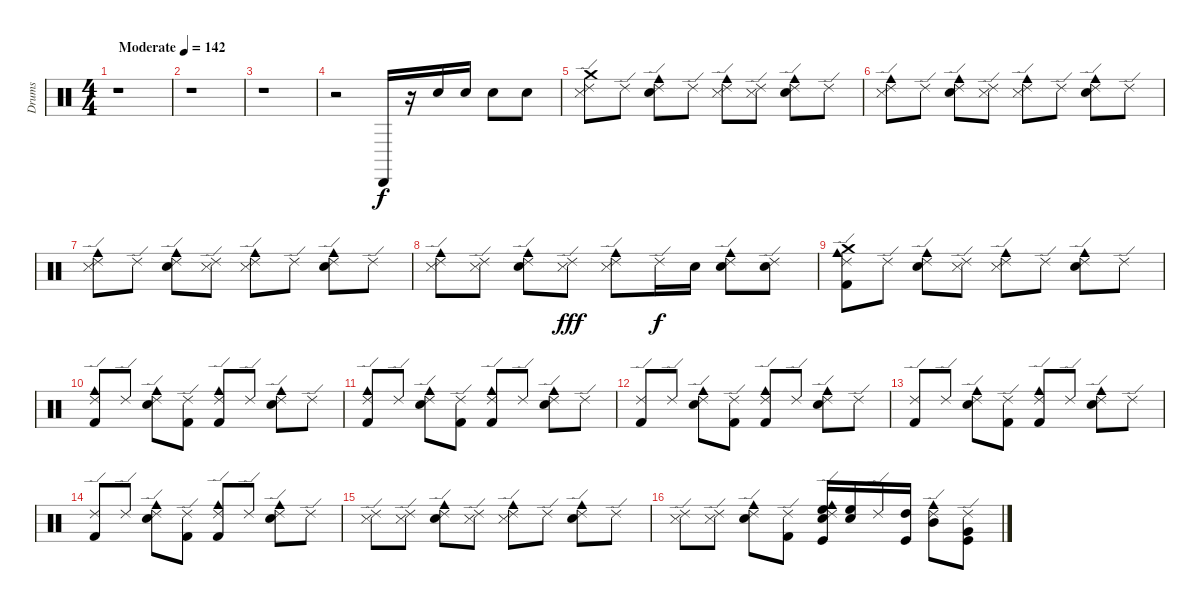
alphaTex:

\track ("Drums" "Drums") {instrument percussion}
\staff {score}
\articulation defaults
\ts (4 4)
\tempo (142 "Moderate")
\clef neutral
\ks c
r.1{dy f} |
r.1 |
r.1 |
r.2 "Cabasa (hit)".16{volume 16} r.16 "Snare (hit) 2".16 "Snare (hit) 2".16 "Snare (hit) 2".8 "Snare (hit) 2".8 |
("Metronome (hit)" "Crash medium (hit)" "Ride (edge) 2").8 "Ride (edge) 2".8 ("Cowbell medium (hit)" "Ride (edge) 2" "Snare (hit) 2").8 "Ride (edge) 2".8 ("Cowbell medium (hit)" "Ride (edge) 2" "Metronome (hit)").8 ("Metronome (hit)" "Ride (edge) 2").8 ("Cowbell medium (hit)" "Ride (edge) 2" "Snare (hit) 2").8 "Ride (edge) 2".8 |
("Metronome (hit)" "Cowbell medium (hit)" "Ride (edge) 2").8 "Ride (edge) 2".8 ("Cowbell medium (hit)" "Ride (edge) 2" "Snare (hit) 2").8 ("Ride (edge) 2" "Metronome (hit)").8 ("Cowbell medium (hit)" "Ride (edge) 2" "Metronome (hit)").8 "Ride (edge) 2".8 ("Cowbell medium (hit)" "Ride (edge) 2" "Snare (hit) 2").8 "Ride (edge) 2".8 |
("Metronome (hit)" "Cowbell medium (hit)" "Ride (edge) 2").8 "Ride (edge) 2".8 ("Cowbell medium (hit)" "Ride (edge) 2" "Snare (hit) 2").8 ("Ride (edge) 2" "Metronome (hit)").8 ("Cowbell medium (hit)" "Ride (edge) 2" "Metronome (hit)").8 "Ride (edge) 2".8 ("Cowbell medium (hit)" "Ride (edge) 2" "Snare (hit) 2").8 "Ride (edge) 2".8 |
("Metronome (hit)" "Cowbell medium (hit)" "Ride (edge) 2").8 ("Metronome (hit)" "Ride (edge) 2").8 ("Cowbell medium (hit)" "Ride (edge) 2" "Snare (hit) 2").8 ("Ride (edge) 2" "Metronome (hit)").8{dy fff} ("Cowbell medium (hit)" "Ride (edge) 2" "Metronome (hit)").8 "Ride (edge) 2".16{dy f} "Snare (hit) 2".16 ("Snare (hit) 2" "Cowbell medium (hit)" "Ride (edge) 2").8 ("Snare (hit) 2" "Ride (edge) 2").8 |
("Crash medium (hit)" "Cowbell medium (hit)" "Ride (edge) 2" "Kick (hit) 2").8 "Ride (edge) 2".8 ("Cowbell medium (hit)" "Ride (edge) 2" "Snare (hit) 2").8 ("Ride (edge) 2" "Metronome (hit)").8 ("Cowbell medium (hit)" "Ride (edge) 2" "Metronome (hit)").8 "Ride (edge) 2".8 ("Cowbell medium (hit)" "Ride (edge) 2" "Snare (hit) 2").8 "Ride (edge) 2".8 |
("Cowbell medium (hit)" "Ride (edge) 2" "Kick (hit) 2").8 "Ride (edge) 2".8 ("Cowbell medium (hit)" "Ride (edge) 2" "Snare (hit) 2").8 ("Ride (edge) 2" "Kick (hit) 2").8 ("Cowbell medium (hit)" "Ride (edge) 2" "Kick (hit) 2").8 "Ride (edge) 2".8 ("Cowbell medium (hit)" "Ride (edge) 2" "Snare (hit) 2").8 "Ride (edge) 2".8 |
("Cowbell medium (hit)" "Ride (edge) 2" "Kick (hit) 2").8 "Ride (edge) 2".8 ("Cowbell medium (hit)" "Ride (edge) 2" "Snare (hit) 2").8 ("Ride (edge) 2" "Kick (hit) 2").8 ("Cowbell medium (hit)" "Ride (edge) 2" "Kick (hit) 2").8 "Ride (edge) 2".8 ("Cowbell medium (hit)" "Ride (edge) 2" "Snare (hit) 2").8 "Ride (edge) 2".8 |
("Ride (edge) 2" "Kick (hit) 2").8 "Ride (edge) 2".8 ("Cowbell medium (hit)" "Ride (edge) 2" "Snare (hit) 2").8 ("Ride (edge) 2" "Kick (hit) 2").8 ("Cowbell medium (hit)" "Ride (edge) 2" "Kick (hit) 2").8 "Ride (edge) 2".8 ("Cowbell medium (hit)" "Ride (edge) 2" "Snare (hit) 2").8 "Ride (edge) 2".8 |
("Ride (edge) 2" "Kick (hit) 2").8 "Ride (edge) 2".8 ("Cowbell medium (hit)" "Ride (edge) 2" "Snare (hit) 2").8 ("Ride (edge) 2" "Kick (hit) 2").8 ("Cowbell medium (hit)" "Ride (edge) 2" "Kick (hit) 2").8 "Ride (edge) 2".8 ("Cowbell medium (hit)" "Ride (edge) 2" "Snare (hit) 2").8 "Ride (edge) 2".8 |
("Ride (edge) 2" "Kick (hit) 2").8 "Ride (edge) 2".8 ("Cowbell medium (hit)" "Ride (edge) 2" "Snare (hit) 2").8 ("Ride (edge) 2" "Kick (hit) 2").8 ("Cowbell medium (hit)" "Ride (edge) 2" "Kick (hit) 2").8 "Ride (edge) 2".8 ("Cowbell medium (hit)" "Ride (edge) 2" "Snare (hit) 2").8 "Ride (edge) 2".8 |
("Metronome (hit)" "Ride (edge) 2").8 ("Metronome (hit)" "Ride (edge) 2").8 ("Cowbell medium (hit)" "Ride (edge) 2" "Snare (hit) 2").8 ("Ride (edge) 2" "Metronome (hit)").8 ("Cowbell medium (hit)" "Ride (edge) 2" "Metronome (hit)").8 "Ride (edge) 2".8 ("Cowbell medium (hit)" "Ride (edge) 2" "Snare (hit) 2").8 "Ride (edge) 2".8 |
("Metronome (hit)" "Ride (edge) 2").8 ("Metronome (hit)" "Ride (edge) 2").8 ("Cowbell medium (hit)" "Ride (edge) 2" "Snare (hit) 2").8 ("Ride (edge) 2" "Kick (hit) 2").8 ("High Floor Tom (hit)" "Kick (hit)" "Snare (hit) 2" "Cowbell medium (hit)" "Ride (edge) 2").16 ("High Floor Tom (hit)" "Snare (hit) 2").16 "Ride (edge) 2".16 ("Kick (hit)" "High Tom (hit)").16 ("Mid Tom (hit)" "Cowbell medium (hit)" "Ride (edge) 2").8 ("Kick (hit)" "Very Low Tom (hit)" "Ride (edge) 2").8
